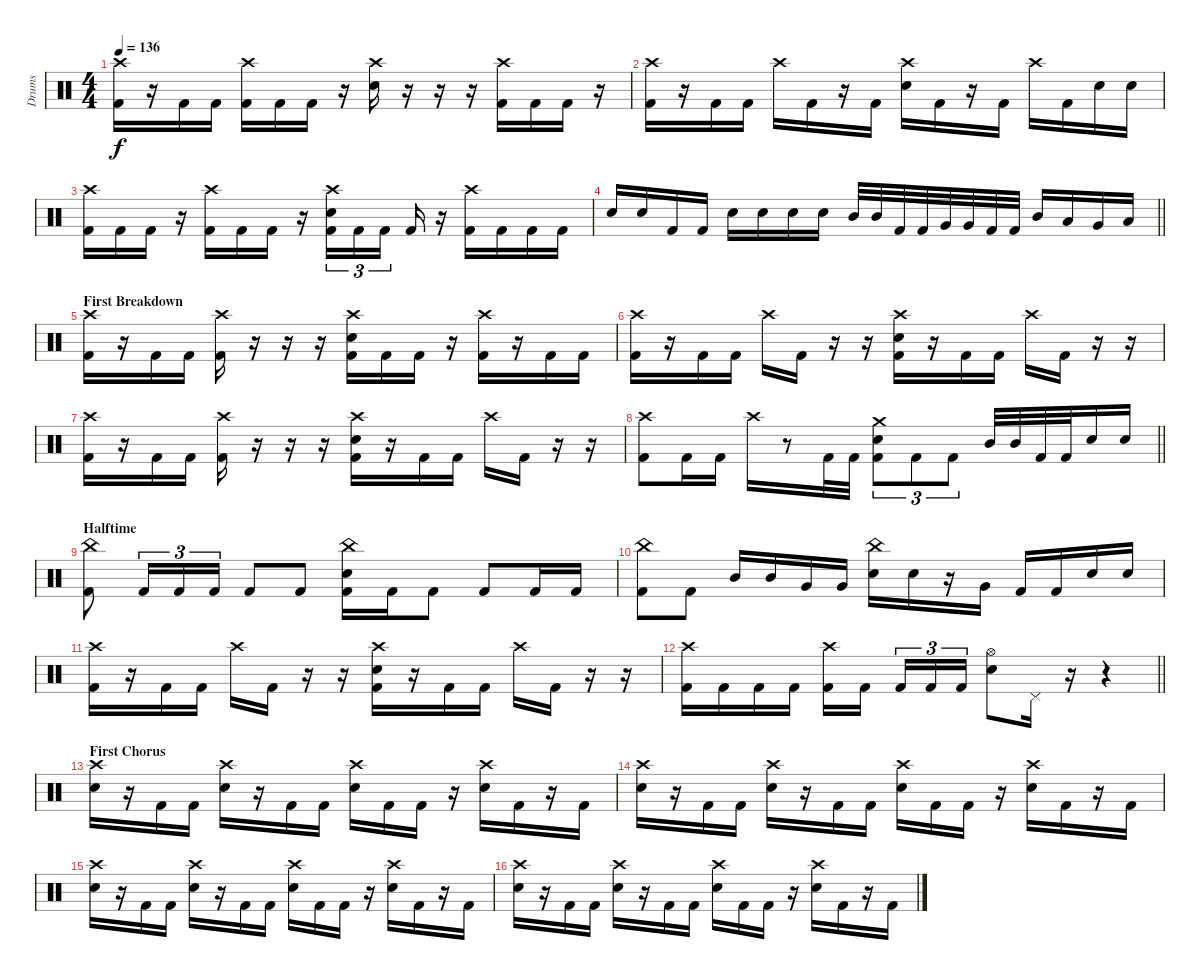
\track ("Drums" "Drums") {instrument percussion}
\staff {score}
\articulation defaults
\ts (4 4)
\tempo 136
\clef neutral
\ks c
("Crash high (hit)" "Kick (hit) 2").16{dy f} r.16 "Kick (hit) 2".16 "Kick (hit) 2".16 ("Crash high (hit)" "Kick (hit) 2").16 "Kick (hit) 2".16 "Kick (hit) 2".16 r.16 ("Crash high (hit)" "Electric Snare (hit)").16 r.16 r.16 r.16 ("Crash high (hit)" "Kick (hit) 2").16 "Kick (hit) 2".16 "Kick (hit) 2".16 r.16 |
("Crash high (hit)" "Kick (hit) 2").16 r.16 "Kick (hit) 2".16 "Kick (hit) 2".16 "Crash high (hit)".16 "Kick (hit) 2".16 r.16 "Kick (hit) 2".16 ("Crash high (hit)" "Electric Snare (hit)").16 "Kick (hit) 2".16 r.16 "Kick (hit) 2".16 "Crash high (hit)".16 "Kick (hit) 2".16 "Electric Snare (hit)".16 "Electric Snare (hit)".16 |
("Crash high (hit)" "Kick (hit) 2").16 "Kick (hit) 2".16 "Kick (hit) 2".16 r.16 ("Crash high (hit)" "Kick (hit) 2").16 "Kick (hit) 2".16 "Kick (hit) 2".16 r.16 ("Crash high (hit)" "Electric Snare (hit)" "Kick (hit) 2").16{tu (3 2)} "Kick (hit) 2".16{tu (3 2)} "Kick (hit) 2".16{tu (3 2) beam splitsecondary} "Kick (hit) 2".16 r.16 ("Crash high (hit)" "Kick (hit) 2").16 "Kick (hit) 2".16 "Kick (hit) 2".16 "Kick (hit) 2".16 |
\barLineRight lightlight "Electric Snare (hit)".16 "Electric Snare (hit)".16 "Kick (hit) 2".16 "Kick (hit) 2".16 "Electric Snare (hit)".16 "Electric Snare (hit)".16 "Electric Snare (hit)".16 "Electric Snare (hit)".16 "Mid Tom (hit)".32 "Mid Tom (hit)".32 "Kick (hit) 2".32 "Kick (hit) 2".32 "Very Low Tom (hit)".32 "Very Low Tom (hit)".32 "Kick (hit) 2".32 "Kick (hit) 2".32 "Mid Tom (hit)".16 "Low Tom (hit)".16 "Very Low Tom (hit)".16 "Low Floor Tom (hit)".16
|
\section ("" "First Breakdown")
("Crash high (hit)" "Kick (hit) 2").16 r.16 "Kick (hit) 2".16 "Kick (hit) 2".16 ("Crash high (hit)" "Kick (hit) 2").16 r.16 r.16 r.16 ("Crash high (hit)" "Electric Snare (hit)" "Kick (hit) 2").16 "Kick (hit) 2".16 "Kick (hit) 2".16 r.16 ("Crash high (hit)" "Kick (hit) 2").16 r.16 "Kick (hit) 2".16 "Kick (hit) 2".16 |
("Crash high (hit)" "Kick (hit) 2").16 r.16 "Kick (hit) 2".16 "Kick (hit) 2".16 "Crash high (hit)".16 "Kick (hit) 2".16 r.16 r.16 ("Crash high (hit)" "Electric Snare (hit)" "Kick (hit) 2").16 r.16 "Kick (hit) 2".16 "Kick (hit) 2".16 "Crash high (hit)".16 "Kick (hit) 2".16 r.16 r.16 |
("Crash high (hit)" "Kick (hit) 2").16 r.16 "Kick (hit) 2".16 "Kick (hit) 2".16 ("Crash high (hit)" "Kick (hit) 2").16 r.16 r.16 r.16 ("Crash high (hit)" "Electric Snare (hit)" "Kick (hit) 2").16 r.16 "Kick (hit) 2".16 "Kick (hit) 2".16 "Crash high (hit)".16 "Kick (hit) 2".16 r.16 r.16 |
\barLineRight lightlight
("Crash high (hit)" "Kick (hit) 2").8 "Kick (hit) 2".16 "Kick (hit) 2".16 "Crash high (hit)".16 r.8 "Kick (hit) 2".32 "Kick (hit) 2".32 ("Crash medium (hit)" "Electric Snare (hit)" "Kick (hit) 2").8{tu (3 2)} "Kick (hit) 2".8{tu (3 2)} "Kick (hit) 2".8{tu (3 2)} "Mid Tom (hit)".32 "Mid Tom (hit)".32 "Kick (hit) 2".32 "Kick (hit) 2".32 "Electric Snare (hit)".16 "Electric Snare (hit)".16 |
\section ("" "Halftime")
("China (hit)" "Kick (hit) 2").8 "Kick (hit) 2".16{tu (3 2)} "Kick (hit) 2".16{tu (3 2)} "Kick (hit) 2".16{tu (3 2)} "Kick (hit) 2".8 "Kick (hit) 2".8 ("China (hit)" "Electric Snare (hit)" "Kick (hit) 2").16 "Kick (hit) 2".16 "Kick (hit) 2".8 "Kick (hit) 2".8 "Kick (hit) 2".16 "Kick (hit) 2".16 |
("China (hit)" "Kick (hit) 2").8 "Kick (hit) 2".8 "Mid Tom (hit)".16 "Mid Tom (hit)".16 "Very Low Tom (hit)".16 "Very Low Tom (hit)".16 ("China (hit)" "Electric Snare (hit)").16 "Electric Snare (hit)".16 r.16 "Very Low Tom (hit)".16 "Kick (hit) 2".16 "Kick (hit) 2".16 "Electric Snare (hit)".16 "Electric Snare (hit)".16 |
("Crash high (hit)" "Kick (hit) 2").16 r.16 "Kick (hit) 2".16 "Kick (hit) 2".16 "Crash high (hit)".16 "Kick (hit) 2".16 r.16 r.16 ("Crash high (hit)" "Electric Snare (hit)" "Kick (hit) 2").16 r.16 "Kick (hit) 2".16 "Kick (hit) 2".16 "Crash high (hit)".16 "Kick (hit) 2".16 r.16 r.16 |
\barLineRight lightlight
("Crash high (hit)" "Kick (hit) 2").16 "Kick (hit) 2".16 "Kick (hit) 2".16 "Kick (hit) 2".16 ("Crash high (hit)" "Kick (hit) 2").16 "Kick (hit) 2".16{beam splitsecondary} "Kick (hit) 2".16{tu (3 2)} "Kick (hit) 2".16{tu (3 2)} "Kick (hit) 2".16{tu (3 2)} ("Hi-Hat (open)" "Electric Snare (hit)").8 "Pedal Hi-Hat (hit)".16 r.16 r.4 |
\section ("" "First Chorus")
("Crash high (hit)" "Electric Snare (hit)").16 r.16 "Kick (hit) 2".16 "Kick (hit) 2".16 ("Crash high (hit)" "Electric Snare (hit)").16 r.16 "Kick (hit) 2".16 "Kick (hit) 2".16 ("Crash high (hit)" "Electric Snare (hit)").16 "Kick (hit) 2".16 "Kick (hit) 2".16 r.16 ("Crash high (hit)" "Electric Snare (hit)").16 "Kick (hit) 2".16 r.16 "Kick (hit) 2".16 |
("Crash high (hit)" "Electric Snare (hit)").16 r.16 "Kick (hit) 2".16 "Kick (hit) 2".16 ("Crash high (hit)" "Electric Snare (hit)").16 r.16 "Kick (hit) 2".16 "Kick (hit) 2".16 ("Crash high (hit)" "Electric Snare (hit)").16 "Kick (hit) 2".16 "Kick (hit) 2".16 r.16 ("Crash high (hit)" "Electric Snare (hit)").16 "Kick (hit) 2".16 r.16 "Kick (hit) 2".16 |
("Crash high (hit)" "Electric Snare (hit)").16 r.16 "Kick (hit) 2".16 "Kick (hit) 2".16 ("Crash high (hit)" "Electric Snare (hit)").16 r.16 "Kick (hit) 2".16 "Kick (hit) 2".16 ("Crash high (hit)" "Electric Snare (hit)").16 "Kick (hit) 2".16 "Kick (hit) 2".16 r.16 ("Crash high (hit)" "Electric Snare (hit)").16 "Kick (hit) 2".16 r.16 "Kick (hit) 2".16 |
("Crash high (hit)" "Electric Snare (hit)").16 r.16 "Kick (hit) 2".16 "Kick (hit) 2".16 ("Crash high (hit)" "Electric Snare (hit)").16 r.16 "Kick (hit) 2".16 "Kick (hit) 2".16 ("Crash high (hit)" "Electric Snare (hit)").16 "Kick (hit) 2".16 "Kick (hit) 2".16 r.16 ("Crash high (hit)" "Electric Snare (hit)").16 "Kick (hit) 2".16 r.16 "Kick (hit) 2".16
